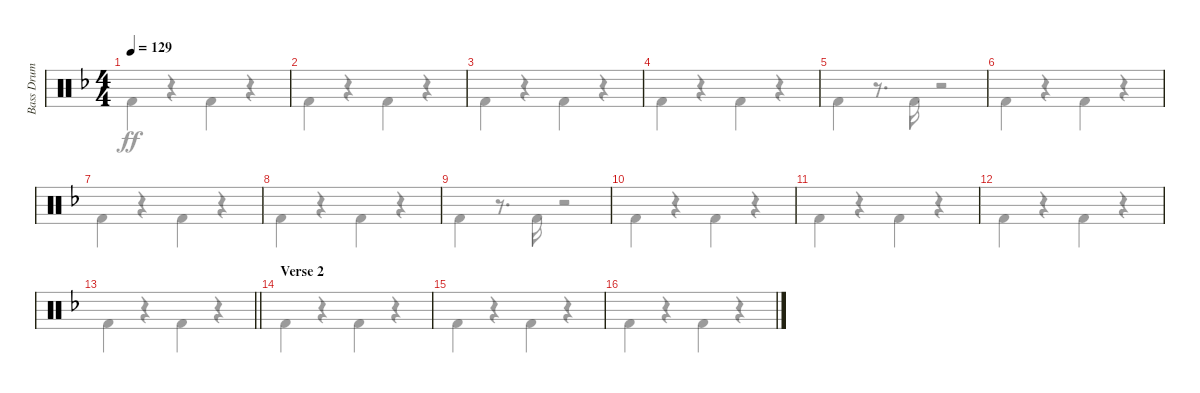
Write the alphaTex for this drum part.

\track ("Bass Drum" "Bass Drum") {instrument percussion}
\staff {score}
\articulation defaults
\voice
\ts (4 4)
\tempo 129
\clef neutral
\ks dminor
|
|
|
|
|
|
|
|
|
|
|
|
\barLineRight lightlight
|
\section ("" "Verse 2")
|
|
\voice
\clef neutral
\ks dminor "Kick (hit) 2".4{dy ff}
r.4 "Kick (hit) 2".4 r.4 |
"Kick (hit) 2".4 r.4 "Kick (hit) 2".4 r.4 |
"Kick (hit) 2".4 r.4 "Kick (hit) 2".4 r.4 |
"Kick (hit) 2".4 r.4 "Kick (hit) 2".4 r.4 |
"Kick (hit) 2".4 r.8{d} "Kick (hit) 2".16 r.2 |
"Kick (hit) 2".4 r.4 "Kick (hit) 2".4 r.4 |
"Kick (hit) 2".4 r.4 "Kick (hit) 2".4 r.4 |
"Kick (hit) 2".4 r.4 "Kick (hit) 2".4 r.4 |
"Kick (hit) 2".4 r.8{d} "Kick (hit) 2".16 r.2 |
"Kick (hit) 2".4 r.4 "Kick (hit) 2".4 r.4 |
"Kick (hit) 2".4 r.4 "Kick (hit) 2".4 r.4 |
"Kick (hit) 2".4 r.4 "Kick (hit) 2".4 r.4 |
\barLineRight lightlight "Kick (hit) 2".4
r.4 "Kick (hit) 2".4 r.4 |
"Kick (hit) 2".4 r.4 "Kick (hit) 2".4 r.4 |
"Kick (hit) 2".4 r.4 "Kick (hit) 2".4 r.4 |
"Kick (hit) 2".4 r.4 "Kick (hit) 2".4 r.4
